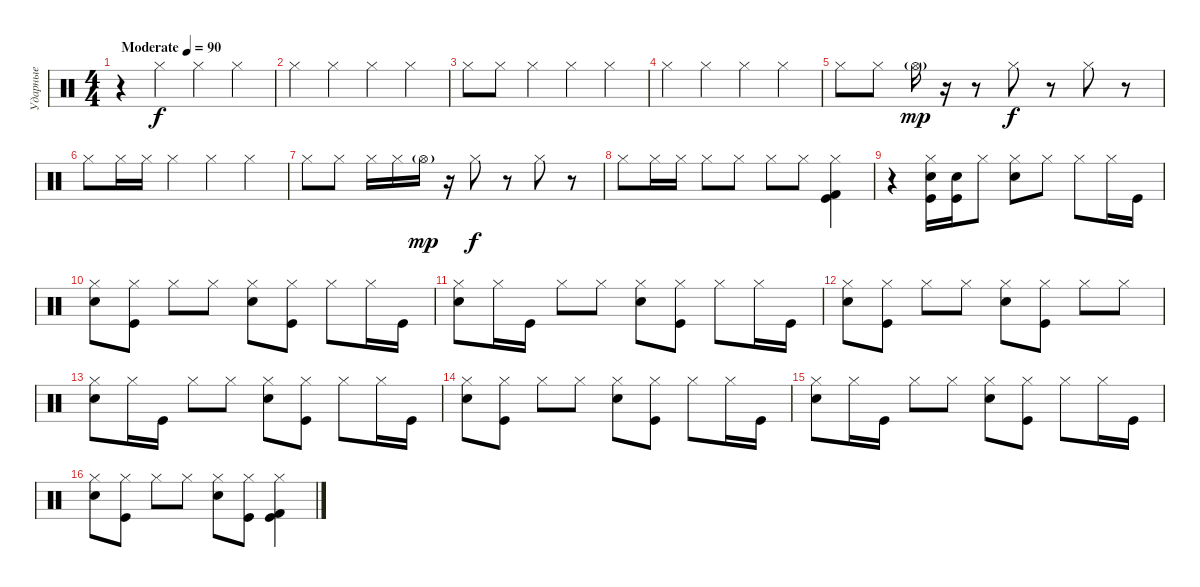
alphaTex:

\track ("Ударные" "Ударные") {instrument percussion}
\staff {score}
\articulation defaults
\ts (4 4)
\tempo (90 "Moderate")
\clef neutral
\ks c
r.4{dy f} "Hi-Hat (closed)".4 "Hi-Hat (closed)".4 "Hi-Hat (closed)".4 |
"Hi-Hat (closed)".4 "Hi-Hat (closed)".4 "Hi-Hat (closed)".4 "Hi-Hat (closed)".4 |
"Hi-Hat (closed)".8 "Hi-Hat (closed)".8 "Hi-Hat (closed)".4 "Hi-Hat (closed)".4 "Hi-Hat (closed)".4 |
"Hi-Hat (closed)".4 "Hi-Hat (closed)".4 "Hi-Hat (closed)".4 "Hi-Hat (closed)".4 |
"Hi-Hat (closed)".8 "Hi-Hat (closed)".8 "Hi-Hat (open)"{g}.16{dy mp} r.16 r.8 "Hi-Hat (closed)".8{dy f} r.8 "Hi-Hat (closed)".8 r.8 |
"Hi-Hat (closed)".8 "Hi-Hat (closed)".16 "Hi-Hat (closed)".16 "Hi-Hat (closed)".4 "Hi-Hat (closed)".4 "Hi-Hat (closed)".4 |
"Hi-Hat (closed)".8 "Hi-Hat (closed)".8 "Hi-Hat (closed)".16 "Hi-Hat (closed)".16 "Hi-Hat (open)"{g}.16{dy mp} r.16 "Hi-Hat (closed)".8{dy f} r.8 "Hi-Hat (closed)".8 r.8 |
"Hi-Hat (closed)".8 "Hi-Hat (closed)".16 "Hi-Hat (closed)".16 "Hi-Hat (closed)".8 "Hi-Hat (closed)".8 "Hi-Hat (closed)".8 "Hi-Hat (closed)".8 ("Hi-Hat (closed)" "Kick (hit) 2" "Kick (hit)").4 |
r.4 ("Hi-Hat (closed)" "Snare (hit) 2" "Kick (hit)").16 ("Snare (hit) 2" "Kick (hit)").16 "Hi-Hat (closed)".8 ("Hi-Hat (closed)" "Snare (hit) 2").8 "Hi-Hat (closed)".8 "Hi-Hat (closed)".8 "Hi-Hat (closed)".16 "Kick (hit)".16 |
("Hi-Hat (closed)" "Snare (hit) 2").8 ("Hi-Hat (closed)" "Kick (hit)").8 "Hi-Hat (closed)".8 "Hi-Hat (closed)".8 ("Hi-Hat (closed)" "Snare (hit) 2").8 ("Hi-Hat (closed)" "Kick (hit)").8 "Hi-Hat (closed)".8 "Hi-Hat (closed)".16 "Kick (hit)".16 |
("Hi-Hat (closed)" "Snare (hit) 2").8 "Hi-Hat (closed)".16 "Kick (hit)".16 "Hi-Hat (closed)".8 "Hi-Hat (closed)".8 ("Hi-Hat (closed)" "Snare (hit) 2").8 ("Hi-Hat (closed)" "Kick (hit)").8 "Hi-Hat (closed)".8 "Hi-Hat (closed)".16 "Kick (hit)".16 |
("Hi-Hat (closed)" "Snare (hit) 2").8 ("Hi-Hat (closed)" "Kick (hit)").8 "Hi-Hat (closed)".8 "Hi-Hat (closed)".8 ("Hi-Hat (closed)" "Snare (hit) 2").8 ("Hi-Hat (closed)" "Kick (hit)").8 "Hi-Hat (closed)".8 "Hi-Hat (closed)".8 |
("Hi-Hat (closed)" "Snare (hit) 2").8 "Hi-Hat (closed)".16 "Kick (hit)".16 "Hi-Hat (closed)".8 "Hi-Hat (closed)".8 ("Hi-Hat (closed)" "Snare (hit) 2").8 ("Hi-Hat (closed)" "Kick (hit)").8 "Hi-Hat (closed)".8 "Hi-Hat (closed)".16 "Kick (hit)".16 |
("Hi-Hat (closed)" "Snare (hit) 2").8 ("Hi-Hat (closed)" "Kick (hit)").8 "Hi-Hat (closed)".8 "Hi-Hat (closed)".8 ("Hi-Hat (closed)" "Snare (hit) 2").8 ("Hi-Hat (closed)" "Kick (hit)").8 "Hi-Hat (closed)".8 "Hi-Hat (closed)".16 "Kick (hit)".16 |
("Hi-Hat (closed)" "Snare (hit) 2").8 "Hi-Hat (closed)".16 "Kick (hit)".16 "Hi-Hat (closed)".8 "Hi-Hat (closed)".8 ("Hi-Hat (closed)" "Snare (hit) 2").8 ("Hi-Hat (closed)" "Kick (hit)").8 "Hi-Hat (closed)".8 "Hi-Hat (closed)".16 "Kick (hit)".16 |
("Hi-Hat (closed)" "Snare (hit) 2").8 ("Hi-Hat (closed)" "Kick (hit)").8 "Hi-Hat (closed)".8 "Hi-Hat (closed)".8 ("Hi-Hat (closed)" "Snare (hit) 2").8 ("Hi-Hat (closed)" "Kick (hit)").8 ("Hi-Hat (closed)" "Kick (hit) 2" "Kick (hit)").4
